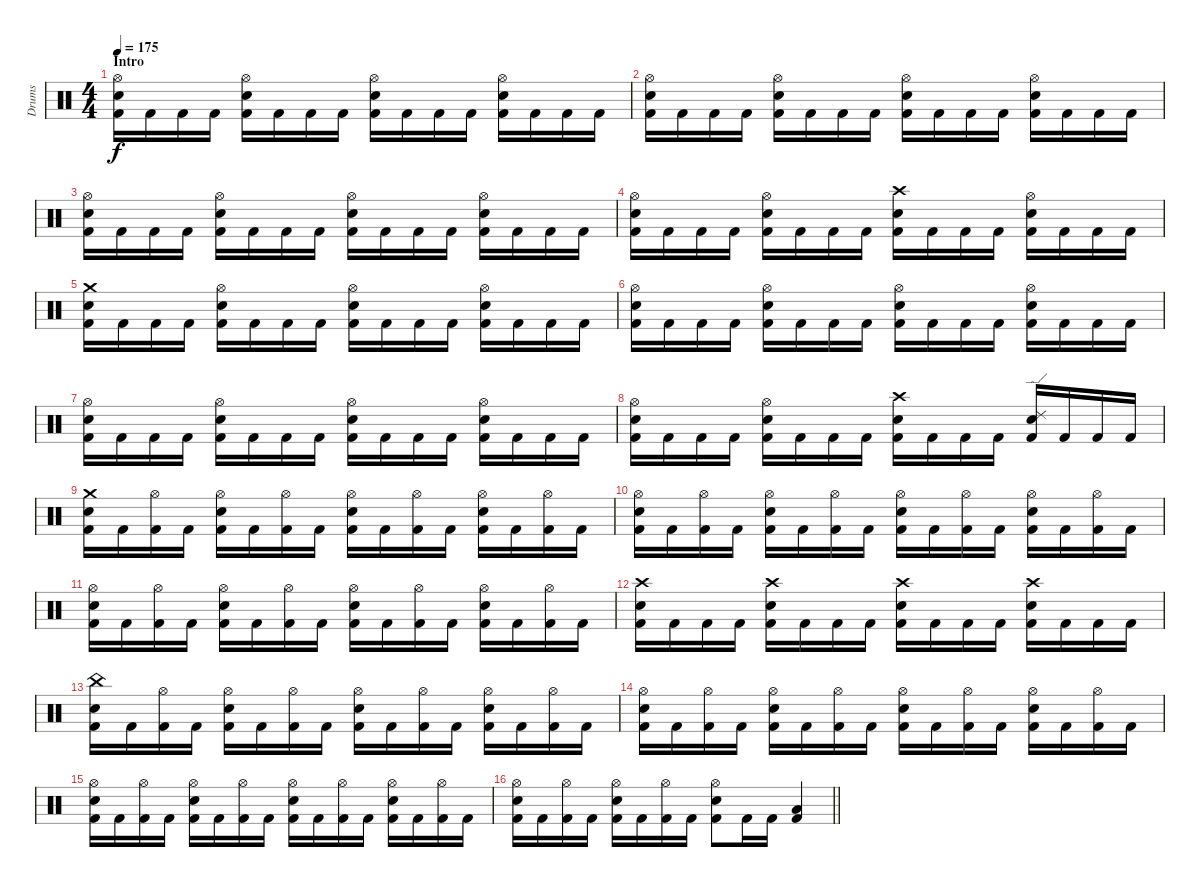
\track ("Drums" "Drums") {instrument percussion}
\staff {score}
\articulation defaults
\ts (4 4)
\section ("" "Intro")
\tempo 175
\clef neutral
\ks c
("Hi-Hat (open)" "Snare (hit) 2" "Kick (hit) 2").16{dy f} "Kick (hit) 2".16 "Kick (hit) 2".16 "Kick (hit) 2".16 ("Hi-Hat (open)" "Snare (hit) 2" "Kick (hit) 2").16 "Kick (hit) 2".16 "Kick (hit) 2".16 "Kick (hit) 2".16 ("Hi-Hat (open)" "Snare (hit) 2" "Kick (hit) 2").16 "Kick (hit) 2".16 "Kick (hit) 2".16 "Kick (hit) 2".16 ("Hi-Hat (open)" "Snare (hit) 2" "Kick (hit) 2").16 "Kick (hit) 2".16 "Kick (hit) 2".16 "Kick (hit) 2".16 |
("Hi-Hat (open)" "Snare (hit) 2" "Kick (hit) 2").16 "Kick (hit) 2".16 "Kick (hit) 2".16 "Kick (hit) 2".16 ("Hi-Hat (open)" "Snare (hit) 2" "Kick (hit) 2").16 "Kick (hit) 2".16 "Kick (hit) 2".16 "Kick (hit) 2".16 ("Hi-Hat (open)" "Snare (hit) 2" "Kick (hit) 2").16 "Kick (hit) 2".16 "Kick (hit) 2".16 "Kick (hit) 2".16 ("Hi-Hat (open)" "Snare (hit) 2" "Kick (hit) 2").16 "Kick (hit) 2".16 "Kick (hit) 2".16 "Kick (hit) 2".16 |
("Hi-Hat (open)" "Snare (hit) 2" "Kick (hit) 2").16 "Kick (hit) 2".16 "Kick (hit) 2".16 "Kick (hit) 2".16 ("Hi-Hat (open)" "Snare (hit) 2" "Kick (hit) 2").16 "Kick (hit) 2".16 "Kick (hit) 2".16 "Kick (hit) 2".16 ("Hi-Hat (open)" "Snare (hit) 2" "Kick (hit) 2").16 "Kick (hit) 2".16 "Kick (hit) 2".16 "Kick (hit) 2".16 ("Hi-Hat (open)" "Snare (hit) 2" "Kick (hit) 2").16 "Kick (hit) 2".16 "Kick (hit) 2".16 "Kick (hit) 2".16 |
("Hi-Hat (open)" "Snare (hit) 2" "Kick (hit) 2").16 "Kick (hit) 2".16 "Kick (hit) 2".16 "Kick (hit) 2".16 ("Hi-Hat (open)" "Snare (hit) 2" "Kick (hit) 2").16 "Kick (hit) 2".16 "Kick (hit) 2".16 "Kick (hit) 2".16 ("Crash high (hit)" "Snare (hit) 2" "Kick (hit) 2").16 "Kick (hit) 2".16 "Kick (hit) 2".16 "Kick (hit) 2".16 ("Hi-Hat (open)" "Snare (hit) 2" "Kick (hit) 2").16 "Kick (hit) 2".16 "Kick (hit) 2".16 "Kick (hit) 2".16 |
("Crash medium (hit)" "Snare (hit) 2" "Kick (hit) 2").16 "Kick (hit) 2".16 "Kick (hit) 2".16 "Kick (hit) 2".16 ("Hi-Hat (open)" "Snare (hit) 2" "Kick (hit) 2").16 "Kick (hit) 2".16 "Kick (hit) 2".16 "Kick (hit) 2".16 ("Hi-Hat (open)" "Snare (hit) 2" "Kick (hit) 2").16 "Kick (hit) 2".16 "Kick (hit) 2".16 "Kick (hit) 2".16 ("Hi-Hat (open)" "Snare (hit) 2" "Kick (hit) 2").16 "Kick (hit) 2".16 "Kick (hit) 2".16 "Kick (hit) 2".16 |
("Hi-Hat (open)" "Snare (hit) 2" "Kick (hit) 2").16 "Kick (hit) 2".16 "Kick (hit) 2".16 "Kick (hit) 2".16 ("Hi-Hat (open)" "Snare (hit) 2" "Kick (hit) 2").16 "Kick (hit) 2".16 "Kick (hit) 2".16 "Kick (hit) 2".16 ("Hi-Hat (open)" "Snare (hit) 2" "Kick (hit) 2").16 "Kick (hit) 2".16 "Kick (hit) 2".16 "Kick (hit) 2".16 ("Hi-Hat (open)" "Snare (hit) 2" "Kick (hit) 2").16 "Kick (hit) 2".16 "Kick (hit) 2".16 "Kick (hit) 2".16 |
("Hi-Hat (open)" "Snare (hit) 2" "Kick (hit) 2").16 "Kick (hit) 2".16 "Kick (hit) 2".16 "Kick (hit) 2".16 ("Hi-Hat (open)" "Snare (hit) 2" "Kick (hit) 2").16 "Kick (hit) 2".16 "Kick (hit) 2".16 "Kick (hit) 2".16 ("Hi-Hat (open)" "Snare (hit) 2" "Kick (hit) 2").16 "Kick (hit) 2".16 "Kick (hit) 2".16 "Kick (hit) 2".16 ("Hi-Hat (open)" "Snare (hit) 2" "Kick (hit) 2").16 "Kick (hit) 2".16 "Kick (hit) 2".16 "Kick (hit) 2".16 |
("Hi-Hat (open)" "Snare (hit) 2" "Kick (hit) 2").16 "Kick (hit) 2".16 "Kick (hit) 2".16 "Kick (hit) 2".16 ("Hi-Hat (open)" "Snare (hit) 2" "Kick (hit) 2").16 "Kick (hit) 2".16 "Kick (hit) 2".16 "Kick (hit) 2".16 ("Crash high (hit)" "Snare (hit) 2" "Kick (hit) 2").16 "Kick (hit) 2".16 "Kick (hit) 2".16 "Kick (hit) 2".16 ("Ride (edge) 2" "Snare (hit) 2" "Kick (hit) 2").16 "Kick (hit) 2".16 "Kick (hit) 2".16 "Kick (hit) 2".16 |
("Crash medium (hit)" "Snare (hit) 2" "Kick (hit) 2").16 "Kick (hit) 2".16 ("Hi-Hat (open)" "Kick (hit) 2").16 "Kick (hit) 2".16 ("Hi-Hat (open)" "Snare (hit) 2" "Kick (hit) 2").16 "Kick (hit) 2".16 ("Hi-Hat (open)" "Kick (hit) 2").16 "Kick (hit) 2".16 ("Hi-Hat (open)" "Snare (hit) 2" "Kick (hit) 2").16 "Kick (hit) 2".16 ("Hi-Hat (open)" "Kick (hit) 2").16 "Kick (hit) 2".16 ("Hi-Hat (open)" "Snare (hit) 2" "Kick (hit) 2").16 "Kick (hit) 2".16 ("Hi-Hat (open)" "Kick (hit) 2").16 "Kick (hit) 2".16 |
("Hi-Hat (open)" "Snare (hit) 2" "Kick (hit) 2").16 "Kick (hit) 2".16 ("Hi-Hat (open)" "Kick (hit) 2").16 "Kick (hit) 2".16 ("Hi-Hat (open)" "Snare (hit) 2" "Kick (hit) 2").16 "Kick (hit) 2".16 ("Hi-Hat (open)" "Kick (hit) 2").16 "Kick (hit) 2".16 ("Hi-Hat (open)" "Snare (hit) 2" "Kick (hit) 2").16 "Kick (hit) 2".16 ("Hi-Hat (open)" "Kick (hit) 2").16 "Kick (hit) 2".16 ("Hi-Hat (open)" "Snare (hit) 2" "Kick (hit) 2").16 "Kick (hit) 2".16 ("Hi-Hat (open)" "Kick (hit) 2").16 "Kick (hit) 2".16 |
("Hi-Hat (open)" "Snare (hit) 2" "Kick (hit) 2").16 "Kick (hit) 2".16 ("Hi-Hat (open)" "Kick (hit) 2").16 "Kick (hit) 2".16 ("Hi-Hat (open)" "Snare (hit) 2" "Kick (hit) 2").16 "Kick (hit) 2".16 ("Hi-Hat (open)" "Kick (hit) 2").16 "Kick (hit) 2".16 ("Hi-Hat (open)" "Snare (hit) 2" "Kick (hit) 2").16 "Kick (hit) 2".16 ("Hi-Hat (open)" "Kick (hit) 2").16 "Kick (hit) 2".16 ("Hi-Hat (open)" "Snare (hit) 2" "Kick (hit) 2").16 "Kick (hit) 2".16 ("Hi-Hat (open)" "Kick (hit) 2").16 "Kick (hit) 2".16 |
("Crash high (hit)" "Snare (hit) 2" "Kick (hit) 2").16 "Kick (hit) 2".16 "Kick (hit) 2".16 "Kick (hit) 2".16 ("Crash high (hit)" "Snare (hit) 2" "Kick (hit) 2").16 "Kick (hit) 2".16 "Kick (hit) 2".16 "Kick (hit) 2".16 ("Crash high (hit)" "Snare (hit) 2" "Kick (hit) 2").16 "Kick (hit) 2".16 "Kick (hit) 2".16 "Kick (hit) 2".16 ("Crash high (hit)" "Snare (hit) 2" "Kick (hit) 2").16 "Kick (hit) 2".16 "Kick (hit) 2".16 "Kick (hit) 2".16 |
("China (hit)" "Snare (hit) 2" "Kick (hit) 2").16 "Kick (hit) 2".16 ("Hi-Hat (open)" "Kick (hit) 2").16 "Kick (hit) 2".16 ("Hi-Hat (open)" "Snare (hit) 2" "Kick (hit) 2").16 "Kick (hit) 2".16 ("Hi-Hat (open)" "Kick (hit) 2").16 "Kick (hit) 2".16 ("Hi-Hat (open)" "Snare (hit) 2" "Kick (hit) 2").16 "Kick (hit) 2".16 ("Hi-Hat (open)" "Kick (hit) 2").16 "Kick (hit) 2".16 ("Hi-Hat (open)" "Snare (hit) 2" "Kick (hit) 2").16 "Kick (hit) 2".16 ("Hi-Hat (open)" "Kick (hit) 2").16 "Kick (hit) 2".16 |
("Hi-Hat (open)" "Snare (hit) 2" "Kick (hit) 2").16 "Kick (hit) 2".16 ("Hi-Hat (open)" "Kick (hit) 2").16 "Kick (hit) 2".16 ("Hi-Hat (open)" "Snare (hit) 2" "Kick (hit) 2").16 "Kick (hit) 2".16 ("Hi-Hat (open)" "Kick (hit) 2").16 "Kick (hit) 2".16 ("Hi-Hat (open)" "Snare (hit) 2" "Kick (hit) 2").16 "Kick (hit) 2".16 ("Hi-Hat (open)" "Kick (hit) 2").16 "Kick (hit) 2".16 ("Hi-Hat (open)" "Snare (hit) 2" "Kick (hit) 2").16 "Kick (hit) 2".16 ("Hi-Hat (open)" "Kick (hit) 2").16 "Kick (hit) 2".16 |
("Hi-Hat (open)" "Snare (hit) 2" "Kick (hit) 2").16 "Kick (hit) 2".16 ("Hi-Hat (open)" "Kick (hit) 2").16 "Kick (hit) 2".16 ("Hi-Hat (open)" "Snare (hit) 2" "Kick (hit) 2").16 "Kick (hit) 2".16 ("Hi-Hat (open)" "Kick (hit) 2").16 "Kick (hit) 2".16 ("Hi-Hat (open)" "Snare (hit) 2" "Kick (hit) 2").16 "Kick (hit) 2".16 ("Hi-Hat (open)" "Kick (hit) 2").16 "Kick (hit) 2".16 ("Hi-Hat (open)" "Snare (hit) 2" "Kick (hit) 2").16 "Kick (hit) 2".16 ("Hi-Hat (open)" "Kick (hit) 2").16 "Kick (hit) 2".16 |
\barLineRight lightlight
("Hi-Hat (open)" "Snare (hit) 2" "Kick (hit) 2").16 "Kick (hit) 2".16 ("Hi-Hat (open)" "Kick (hit) 2").16 "Kick (hit) 2".16 ("Hi-Hat (open)" "Snare (hit) 2" "Kick (hit) 2").16 "Kick (hit) 2".16 ("Hi-Hat (open)" "Kick (hit) 2").16 "Kick (hit) 2".16 ("Hi-Hat (open)" "Snare (hit) 2" "Kick (hit) 2").8 "Kick (hit) 2".16 "Kick (hit) 2".16 ("Kick (hit) 2" "Low Tom (hit)").4
